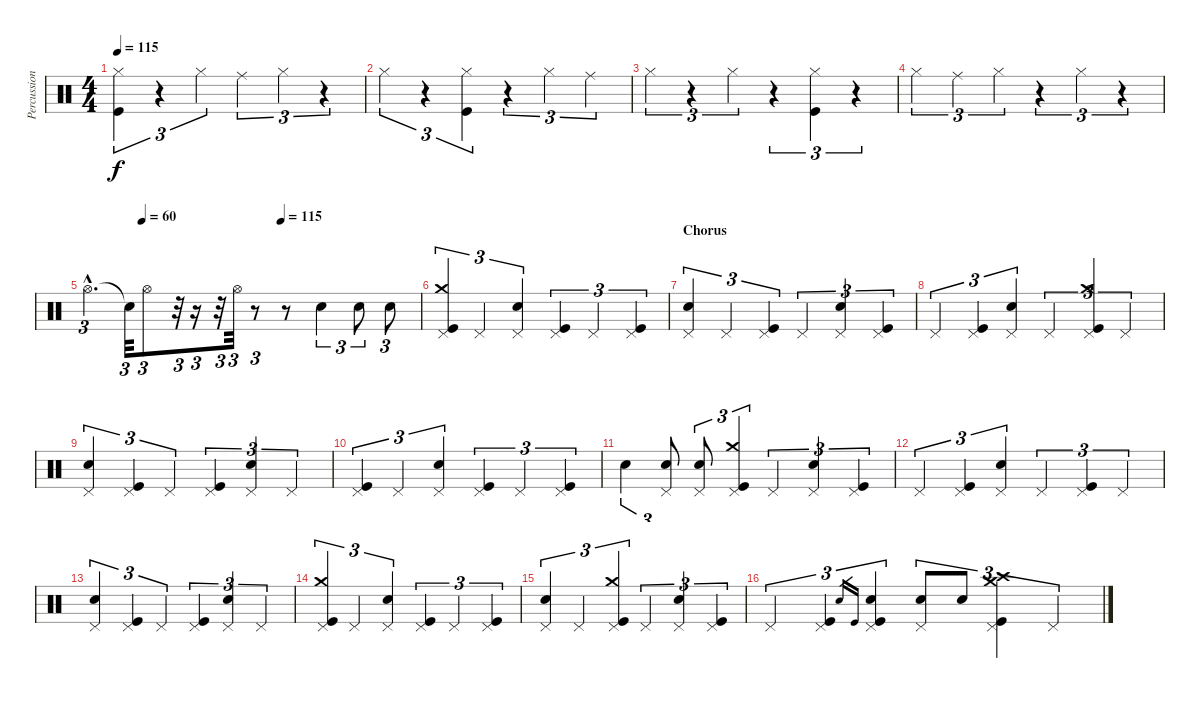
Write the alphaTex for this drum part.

\track ("Percussion" "Percussion") {instrument percussion}
\staff {score}
\articulation defaults
\ts (4 4)
\tempo 115
\clef neutral
\ks c
("Hi-Hat (closed)" "Kick (hit)").4{tu (3 2) dy f} r.4{tu (3 2)} "Hi-Hat (closed)".4{tu (3 2)} "Ride (middle)".4{tu (3 2)} "Hi-Hat (closed)".4{tu (3 2)} r.4{tu (3 2)} |
"Hi-Hat (closed)".4{tu (3 2)} r.4{tu (3 2)} ("Hi-Hat (closed)" "Kick (hit)").4{tu (3 2)} r.4{tu (3 2)} "Hi-Hat (closed)".4{tu (3 2)} "Ride (middle)".4{tu (3 2)} |
"Hi-Hat (closed)".4{tu (3 2)} r.4{tu (3 2)} "Hi-Hat (closed)".4{tu (3 2)} r.4{tu (3 2)} ("Hi-Hat (closed)" "Kick (hit)").4{tu (3 2)} r.4{tu (3 2)} |
"Hi-Hat (closed)".4{tu (3 2)} "Ride (middle)".4{tu (3 2)} "Hi-Hat (closed)".4{tu (3 2)} r.4{tu (3 2)} "Hi-Hat (closed)".4{tu (3 2)} r.4{tu (3 2)} |
\tempo (60 0.16666666666666666)
\tempo (115 0.5833333333333334)
"Hi-Hat (open)"{hac}.4{d tu (3 2)} "Snare (hit)"{t}.32{tu (3 2)} "Hi-Hat (open)".8{tu (3 2)} r.32{tu (3 2)} r.16{tu (3 2)} r.32{tu (3 2)} "Hi-Hat (open)".32{tu (3 2)} r.8{tu (3 2)} r.8 "Electric Snare (hit)".4{tu (3 2)} "Electric Snare (hit)".8{tu (3 2)} "Electric Snare (hit)".8{tu (3 2)} |
("Crash medium (hit)" "Pedal Hi-Hat (hit)" "Kick (hit)").4{tu (3 2)} "Pedal Hi-Hat (hit)".4{tu (3 2)} ("Pedal Hi-Hat (hit)" "Electric Snare (hit)").4{tu (3 2)} ("Pedal Hi-Hat (hit)" "Kick (hit)").4{tu (3 2)} "Pedal Hi-Hat (hit)".4{tu (3 2)} ("Pedal Hi-Hat (hit)" "Kick (hit)").4{tu (3 2)} |
\section ("" "Chorus")
("Pedal Hi-Hat (hit)" "Electric Snare (hit)").4{tu (3 2)} "Pedal Hi-Hat (hit)".4{tu (3 2)} ("Pedal Hi-Hat (hit)" "Kick (hit)").4{tu (3 2)} "Pedal Hi-Hat (hit)".4{tu (3 2)} ("Pedal Hi-Hat (hit)" "Electric Snare (hit)").4{tu (3 2)} ("Pedal Hi-Hat (hit)" "Kick (hit)").4{tu (3 2)} |
"Pedal Hi-Hat (hit)".4{tu (3 2)} ("Pedal Hi-Hat (hit)" "Kick (hit)").4{tu (3 2)} ("Pedal Hi-Hat (hit)" "Electric Snare (hit)").4{tu (3 2)} "Pedal Hi-Hat (hit)".4{tu (3 2)} ("Crash medium (hit)" "Pedal Hi-Hat (hit)" "Kick (hit)").4{tu (3 2)} "Pedal Hi-Hat (hit)".4{tu (3 2)} |
("Pedal Hi-Hat (hit)" "Electric Snare (hit)").4{tu (3 2)} ("Pedal Hi-Hat (hit)" "Kick (hit)").4{tu (3 2)} "Pedal Hi-Hat (hit)".4{tu (3 2)} ("Pedal Hi-Hat (hit)" "Kick (hit)").4{tu (3 2)} ("Pedal Hi-Hat (hit)" "Electric Snare (hit)").4{tu (3 2)} "Pedal Hi-Hat (hit)".4{tu (3 2)} |
("Pedal Hi-Hat (hit)" "Kick (hit)").4{tu (3 2)} "Pedal Hi-Hat (hit)".4{tu (3 2)} ("Pedal Hi-Hat (hit)" "Electric Snare (hit)").4{tu (3 2)} ("Pedal Hi-Hat (hit)" "Kick (hit)").4{tu (3 2)} "Pedal Hi-Hat (hit)".4{tu (3 2)} ("Pedal Hi-Hat (hit)" "Kick (hit)").4{tu (3 2)} |
"Electric Snare (hit)".4{tu (3 2)} ("Pedal Hi-Hat (hit)" "Electric Snare (hit)").8{tu (3 2)} ("Pedal Hi-Hat (hit)" "Electric Snare (hit)").8{tu (3 2)} ("Crash medium (hit)" "Pedal Hi-Hat (hit)" "Kick (hit)").4{tu (3 2)} "Pedal Hi-Hat (hit)".4{tu (3 2)} ("Pedal Hi-Hat (hit)" "Electric Snare (hit)").4{tu (3 2)} ("Pedal Hi-Hat (hit)" "Kick (hit)").4{tu (3 2)} |
"Pedal Hi-Hat (hit)".4{tu (3 2)} ("Pedal Hi-Hat (hit)" "Kick (hit)").4{tu (3 2)} ("Pedal Hi-Hat (hit)" "Electric Snare (hit)").4{tu (3 2)} "Pedal Hi-Hat (hit)".4{tu (3 2)} ("Pedal Hi-Hat (hit)" "Kick (hit)").4{tu (3 2)} "Pedal Hi-Hat (hit)".4{tu (3 2)} |
("Pedal Hi-Hat (hit)" "Electric Snare (hit)").4{tu (3 2)} ("Pedal Hi-Hat (hit)" "Kick (hit)").4{tu (3 2)} "Pedal Hi-Hat (hit)".4{tu (3 2)} ("Pedal Hi-Hat (hit)" "Kick (hit)").4{tu (3 2)} ("Pedal Hi-Hat (hit)" "Electric Snare (hit)").4{tu (3 2)} "Pedal Hi-Hat (hit)".4{tu (3 2)} |
("Crash medium (hit)" "Pedal Hi-Hat (hit)" "Kick (hit)").4{tu (3 2)} "Pedal Hi-Hat (hit)".4{tu (3 2)} ("Pedal Hi-Hat (hit)" "Electric Snare (hit)").4{tu (3 2)} ("Pedal Hi-Hat (hit)" "Kick (hit)").4{tu (3 2)} "Pedal Hi-Hat (hit)".4{tu (3 2)} ("Pedal Hi-Hat (hit)" "Kick (hit)").4{tu (3 2)} |
("Pedal Hi-Hat (hit)" "Electric Snare (hit)").4{tu (3 2)} "Pedal Hi-Hat (hit)".4{tu (3 2)} ("Crash medium (hit)" "Pedal Hi-Hat (hit)" "Kick (hit)").4{tu (3 2)} "Pedal Hi-Hat (hit)".4{tu (3 2)} ("Pedal Hi-Hat (hit)" "Electric Snare (hit)").4{tu (3 2)} ("Pedal Hi-Hat (hit)" "Kick (hit)").4{tu (3 2)} |
"Pedal Hi-Hat (hit)".4{tu (3 2)} ("Pedal Hi-Hat (hit)" "Kick (hit)").4{tu (3 2)} "Electric Snare (hit)".16{gr} "Kick (hit)".16{gr} ("Pedal Hi-Hat (hit)" "Electric Snare (hit)" "Kick (hit)").4{tu (3 2)} ("Pedal Hi-Hat (hit)" "Electric Snare (hit)").8{tu (3 2)} "Electric Snare (hit)".8{tu (3 2)} ("Crash high (hit)" "Crash medium (hit)" "Pedal Hi-Hat (hit)" "Kick (hit)").4{tu (3 2)} "Pedal Hi-Hat (hit)".4{tu (3 2)}
